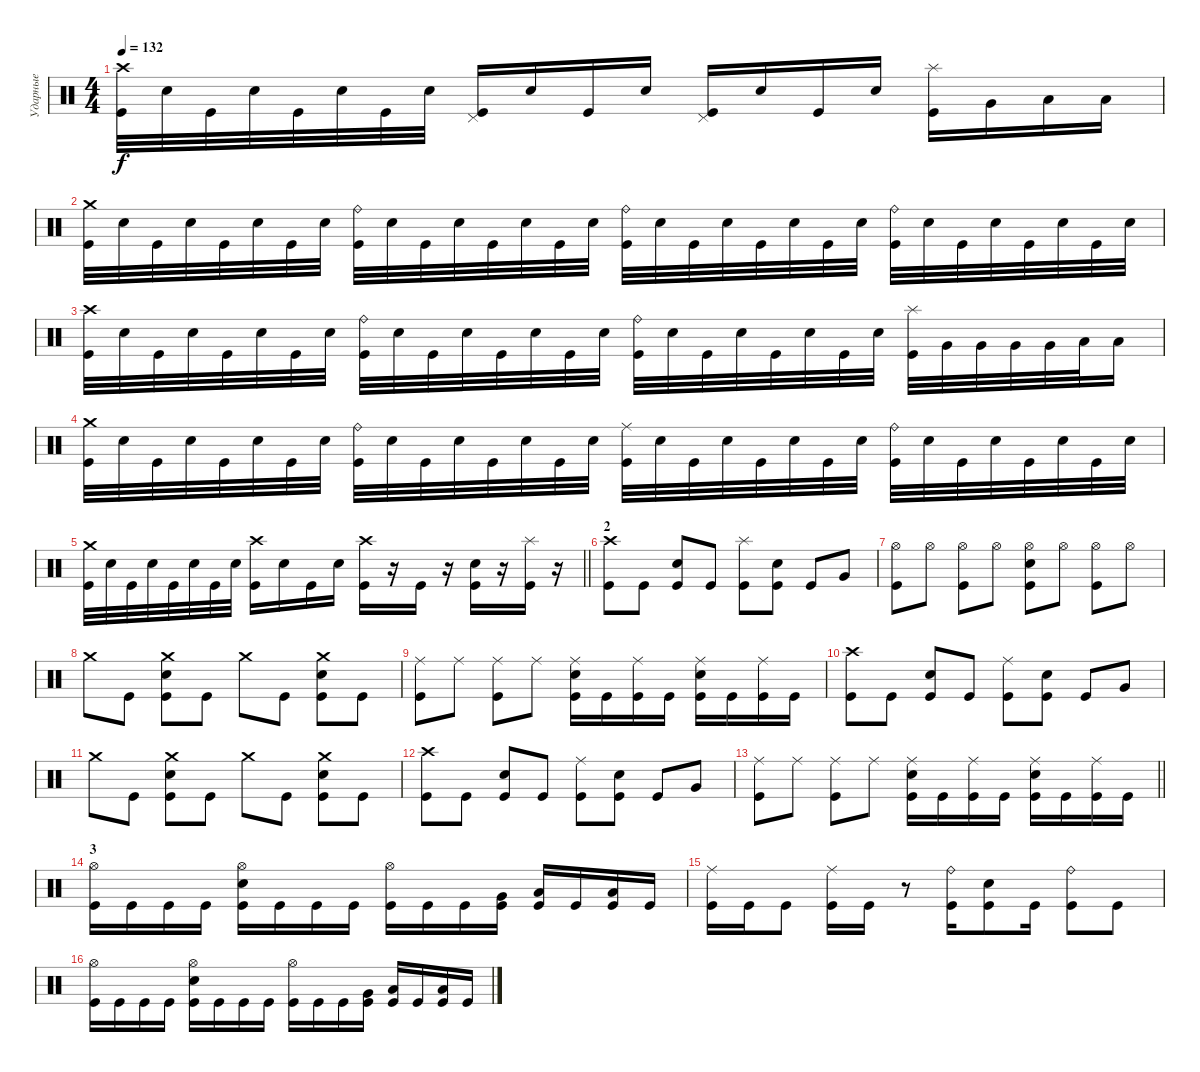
\track ("Ударные" "Ударные") {instrument percussion}
\staff {score}
\articulation defaults
\ts (4 4)
\tempo 132
\clef neutral
\ks c
("Crash high (hit)" "Kick (hit)").32{dy f} "Electric Snare (hit)".32 "Kick (hit)".32 "Electric Snare (hit)".32 "Kick (hit)".32 "Electric Snare (hit)".32 "Kick (hit)".32 "Electric Snare (hit)".32 ("Pedal Hi-Hat (hit)" "Kick (hit)").16 "Electric Snare (hit)".16 "Kick (hit)".16 "Electric Snare (hit)".16 ("Pedal Hi-Hat (hit)" "Kick (hit)").16 "Electric Snare (hit)".16 "Kick (hit)".16 "Electric Snare (hit)".16 ("Splash (hit)" "Kick (hit)").16 "Very Low Tom (hit)".16 "Low Floor Tom (hit)".16 "Low Floor Tom (hit)".16 |
("Crash medium (hit)" "Kick (hit)").32 "Electric Snare (hit)".32 "Kick (hit)".32 "Electric Snare (hit)".32 "Kick (hit)".32 "Electric Snare (hit)".32 "Kick (hit)".32 "Electric Snare (hit)".32 ("Ride (bell)" "Kick (hit)").32 "Electric Snare (hit)".32 "Kick (hit)".32 "Electric Snare (hit)".32 "Kick (hit)".32 "Electric Snare (hit)".32 "Kick (hit)".32 "Electric Snare (hit)".32 ("Ride (bell)" "Kick (hit)").32 "Electric Snare (hit)".32 "Kick (hit)".32 "Electric Snare (hit)".32 "Kick (hit)".32 "Electric Snare (hit)".32 "Kick (hit)".32 "Electric Snare (hit)".32 ("Ride (bell)" "Kick (hit)").32 "Electric Snare (hit)".32 "Kick (hit)".32 "Electric Snare (hit)".32 "Kick (hit)".32 "Electric Snare (hit)".32 "Kick (hit)".32 "Electric Snare (hit)".32 |
("Crash high (hit)" "Kick (hit)").32 "Electric Snare (hit)".32 "Kick (hit)".32 "Electric Snare (hit)".32 "Kick (hit)".32 "Electric Snare (hit)".32 "Kick (hit)".32 "Electric Snare (hit)".32 ("Ride (bell)" "Kick (hit)").32 "Electric Snare (hit)".32 "Kick (hit)".32 "Electric Snare (hit)".32 "Kick (hit)".32 "Electric Snare (hit)".32 "Kick (hit)".32 "Electric Snare (hit)".32 ("Ride (bell)" "Kick (hit)").32 "Electric Snare (hit)".32 "Kick (hit)".32 "Electric Snare (hit)".32 "Kick (hit)".32 "Electric Snare (hit)".32 "Kick (hit)".32 "Electric Snare (hit)".32 ("Splash (hit)" "Kick (hit)").32 "Very Low Tom (hit)".32 "Very Low Tom (hit)".32 "Very Low Tom (hit)".32 "Very Low Tom (hit)".32 "Low Floor Tom (hit)".32 "Low Floor Tom (hit)".16 |
("Crash medium (hit)" "Kick (hit)").32 "Electric Snare (hit)".32 "Kick (hit)".32 "Electric Snare (hit)".32 "Kick (hit)".32 "Electric Snare (hit)".32 "Kick (hit)".32 "Electric Snare (hit)".32 ("Ride (bell)" "Kick (hit)").32 "Electric Snare (hit)".32 "Kick (hit)".32 "Electric Snare (hit)".32 "Kick (hit)".32 "Electric Snare (hit)".32 "Kick (hit)".32 "Electric Snare (hit)".32 ("Ride (middle)" "Kick (hit)").32 "Electric Snare (hit)".32 "Kick (hit)".32 "Electric Snare (hit)".32 "Kick (hit)".32 "Electric Snare (hit)".32 "Kick (hit)".32 "Electric Snare (hit)".32 ("Ride (bell)" "Kick (hit)").32 "Electric Snare (hit)".32 "Kick (hit)".32 "Electric Snare (hit)".32 "Kick (hit)".32 "Electric Snare (hit)".32 "Kick (hit)".32 "Electric Snare (hit)".32 |
\barLineRight lightlight
("Crash medium (hit)" "Kick (hit)").32 "Electric Snare (hit)".32 "Kick (hit)".32 "Electric Snare (hit)".32 "Kick (hit)".32 "Electric Snare (hit)".32 "Kick (hit)".32 "Electric Snare (hit)".32 ("Crash high (hit)" "Kick (hit)").16 "Electric Snare (hit)".16 "Kick (hit)".16 "Electric Snare (hit)".16 ("Crash high (hit)" "Kick (hit)").16 r.16 "Kick (hit)".16 r.16 ("Electric Snare (hit)" "Kick (hit)").16 r.16 ("Splash (hit)" "Kick (hit)").16 r.16 |
\section ("" "2")
("Crash high (hit)" "Kick (hit)").8 "Kick (hit)".8 ("Electric Snare (hit)" "Kick (hit)").8 "Kick (hit)".8 ("Splash (hit)" "Kick (hit)").8 ("Electric Snare (hit)" "Kick (hit)").8 "Kick (hit)".8 "Very Low Tom (hit)".8 |
("Hi-Hat (open)" "Kick (hit)").8 "Hi-Hat (open)".8 ("Hi-Hat (open)" "Kick (hit)").8 "Hi-Hat (open)".8 ("Hi-Hat (open)" "Electric Snare (hit)" "Kick (hit)").8 "Hi-Hat (open)".8 ("Hi-Hat (open)" "Kick (hit)").8 "Hi-Hat (open)".8 |
"Crash medium (hit)".8 "Kick (hit)".8 ("Crash medium (hit)" "Electric Snare (hit)" "Kick (hit)").8 "Kick (hit)".8 "Crash medium (hit)".8 "Kick (hit)".8 ("Crash medium (hit)" "Electric Snare (hit)" "Kick (hit)").8 "Kick (hit)".8 |
("Ride (middle)" "Kick (hit)").8 "Ride (middle)".8 ("Ride (middle)" "Kick (hit)").8 "Ride (middle)".8 ("Ride (middle)" "Electric Snare (hit)" "Kick (hit)").16 "Kick (hit)".16 ("Ride (middle)" "Kick (hit)").16 "Kick (hit)".16 ("Ride (middle)" "Electric Snare (hit)" "Kick (hit)").16 "Kick (hit)".16 ("Ride (middle)" "Kick (hit)").16 "Kick (hit)".16 |
("Crash high (hit)" "Kick (hit)").8 "Kick (hit)".8 ("Electric Snare (hit)" "Kick (hit)").8 "Kick (hit)".8 ("Ride (middle)" "Kick (hit)").8 ("Electric Snare (hit)" "Kick (hit)").8 "Kick (hit)".8 "Very Low Tom (hit)".8 |
"Crash medium (hit)".8 "Kick (hit)".8 ("Crash medium (hit)" "Electric Snare (hit)" "Kick (hit)").8 "Kick (hit)".8 "Crash medium (hit)".8 "Kick (hit)".8 ("Crash medium (hit)" "Electric Snare (hit)" "Kick (hit)").8 "Kick (hit)".8 |
("Crash high (hit)" "Kick (hit)").8 "Kick (hit)".8 ("Electric Snare (hit)" "Kick (hit)").8 "Kick (hit)".8 ("Ride (middle)" "Kick (hit)").8 ("Electric Snare (hit)" "Kick (hit)").8 "Kick (hit)".8 "Very Low Tom (hit)".8 |
\barLineRight lightlight
("Ride (middle)" "Kick (hit)").8 "Ride (middle)".8 ("Ride (middle)" "Kick (hit)").8 "Ride (middle)".8 ("Ride (middle)" "Electric Snare (hit)" "Kick (hit)").16 "Kick (hit)".16 ("Ride (middle)" "Kick (hit)").16 "Kick (hit)".16 ("Ride (middle)" "Electric Snare (hit)" "Kick (hit)").16 "Kick (hit)".16 ("Ride (middle)" "Kick (hit)").16 "Kick (hit)".16 |
\section ("" "3")
("Hi-Hat (open)" "Kick (hit)").16 "Kick (hit)".16 "Kick (hit)".16 "Kick (hit)".16 ("Hi-Hat (open)" "Electric Snare (hit)" "Kick (hit)").16 "Kick (hit)".16 "Kick (hit)".16 "Kick (hit)".16 ("Hi-Hat (open)" "Kick (hit)").16 "Kick (hit)".16 "Kick (hit)".16 ("Very Low Tom (hit)" "Kick (hit)").16 ("Low Tom (hit)" "Kick (hit)").16 "Kick (hit)".16 ("Low Tom (hit)" "Kick (hit)").16 "Kick (hit)".16 |
("Ride (middle)" "Kick (hit)").16 "Kick (hit)".16 "Kick (hit)".8 ("Ride (middle)" "Kick (hit)").16 "Kick (hit)".16 r.8 ("Ride (bell)" "Kick (hit)").16 ("Electric Snare (hit)" "Kick (hit)").8 "Kick (hit)".16 ("Ride (bell)" "Kick (hit)").8 "Kick (hit)".8 |
("Hi-Hat (open)" "Kick (hit)").16 "Kick (hit)".16 "Kick (hit)".16 "Kick (hit)".16 ("Hi-Hat (open)" "Electric Snare (hit)" "Kick (hit)").16 "Kick (hit)".16 "Kick (hit)".16 "Kick (hit)".16 ("Hi-Hat (open)" "Kick (hit)").16 "Kick (hit)".16 "Kick (hit)".16 ("Very Low Tom (hit)" "Kick (hit)").16 ("Low Tom (hit)" "Kick (hit)").16 "Kick (hit)".16 ("Low Tom (hit)" "Kick (hit)").16 "Kick (hit)".16
